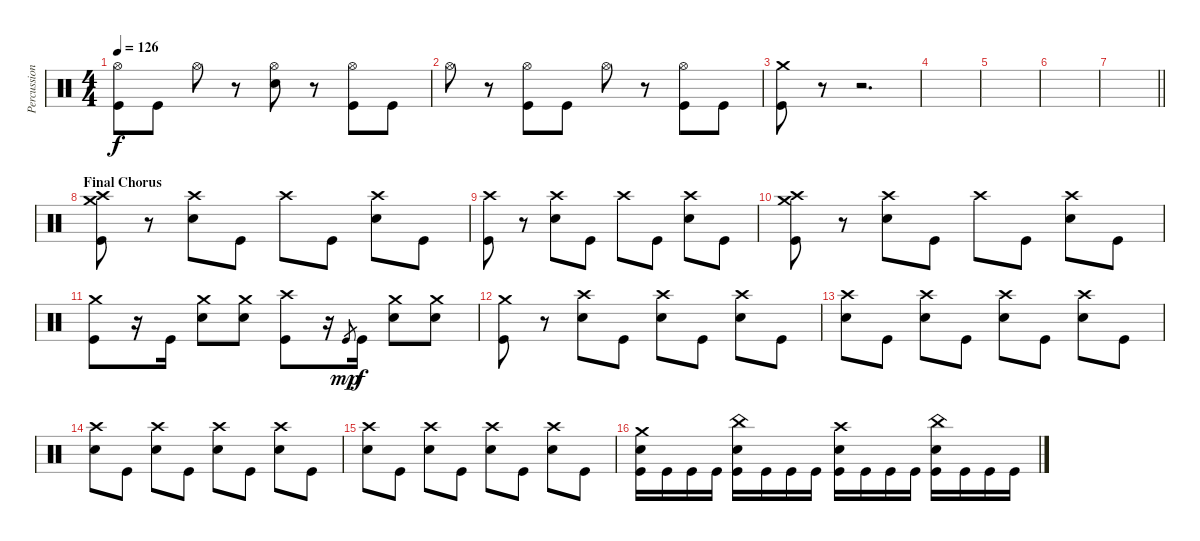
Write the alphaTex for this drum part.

\track ("Percussion" "Percussion") {instrument percussion}
\staff {score}
\articulation defaults
\ts (4 4)
\tempo 126
\clef neutral
\ks c
("Hi-Hat (open)" "Kick (hit)").8{dy f} "Kick (hit)".8 "Hi-Hat (open)".8 r.8 ("Hi-Hat (open)" "Snare (hit) 2").8 r.8 ("Hi-Hat (open)" "Kick (hit)").8 "Kick (hit)".8 |
"Hi-Hat (open)".8 r.8 ("Hi-Hat (open)" "Kick (hit)").8 "Kick (hit)".8 "Hi-Hat (open)".8 r.8 ("Hi-Hat (open)" "Kick (hit)").8 "Kick (hit)".8 |
("Crash medium (hit)" "Kick (hit)").8 r.8 r.2{d} |
|
|
|
\barLineRight lightlight
|
\section ("" "Final Chorus")
("Crash high (hit)" "Crash medium (hit)" "Kick (hit)").8 r.8 ("Crash high (hit)" "Snare (hit) 2").8 "Kick (hit)".8 "Crash high (hit)".8 "Kick (hit)".8 ("Crash high (hit)" "Snare (hit) 2").8 "Kick (hit)".8 |
("Crash high (hit)" "Kick (hit)").8 r.8 ("Crash high (hit)" "Snare (hit) 2").8 "Kick (hit)".8 "Crash high (hit)".8 "Kick (hit)".8 ("Crash high (hit)" "Snare (hit) 2").8 "Kick (hit)".8 |
("Crash high (hit)" "Crash medium (hit)" "Kick (hit)").8 r.8 ("Crash high (hit)" "Snare (hit) 2").8 "Kick (hit)".8 "Crash high (hit)".8 "Kick (hit)".8 ("Crash high (hit)" "Snare (hit) 2").8 "Kick (hit)".8 |
("Crash medium (hit)" "Kick (hit)").8 r.16 "Kick (hit)".16 ("Crash medium (hit)" "Snare (hit) 2").8 ("Crash medium (hit)" "Snare (hit) 2").8 ("Crash high (hit)" "Kick (hit)").8 r.16 "Kick (hit)".8{gr dy mp} "Kick (hit)".16{dy f} ("Crash medium (hit)" "Snare (hit) 2").8 ("Crash medium (hit)" "Snare (hit) 2").8 |
("Crash medium (hit)" "Kick (hit)").8 r.8 ("Crash high (hit)" "Snare (hit) 2").8 "Kick (hit)".8 ("Crash high (hit)" "Snare (hit) 2").8 "Kick (hit)".8 ("Crash high (hit)" "Snare (hit) 2").8 "Kick (hit)".8 |
("Crash high (hit)" "Snare (hit) 2").8 "Kick (hit)".8 ("Crash high (hit)" "Snare (hit) 2").8 "Kick (hit)".8 ("Crash high (hit)" "Snare (hit) 2").8 "Kick (hit)".8 ("Crash high (hit)" "Snare (hit) 2").8 "Kick (hit)".8 |
("Crash high (hit)" "Snare (hit) 2").8 "Kick (hit)".8 ("Crash high (hit)" "Snare (hit) 2").8 "Kick (hit)".8 ("Crash high (hit)" "Snare (hit) 2").8 "Kick (hit)".8 ("Crash high (hit)" "Snare (hit) 2").8 "Kick (hit)".8 |
("Crash high (hit)" "Snare (hit) 2").8 "Kick (hit)".8 ("Crash high (hit)" "Snare (hit) 2").8 "Kick (hit)".8 ("Crash high (hit)" "Snare (hit) 2").8 "Kick (hit)".8 ("Crash high (hit)" "Snare (hit) 2").8 "Kick (hit)".8 |
("Crash medium (hit)" "Snare (hit) 2" "Kick (hit)").16 "Kick (hit)".16 "Kick (hit)".16 "Kick (hit)".16 ("China (hit)" "Snare (hit) 2" "Kick (hit)").16 "Kick (hit)".16 "Kick (hit)".16 "Kick (hit)".16 ("Crash high (hit)" "Snare (hit) 2" "Kick (hit)").16 "Kick (hit)".16 "Kick (hit)".16 "Kick (hit)".16 ("China (hit)" "Snare (hit) 2" "Kick (hit)").16 "Kick (hit)".16 "Kick (hit)".16 "Kick (hit)".16
